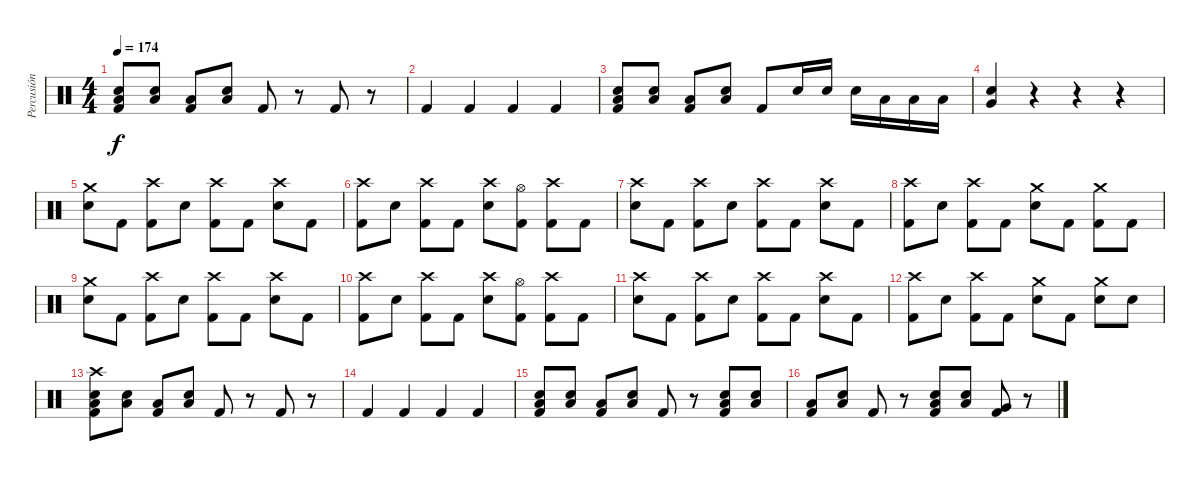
\track ("Percusión" "Percusión") {instrument percussion}
\staff {score}
\articulation defaults
\ts (4 4)
\tempo 174
\clef neutral
\ks c
("Low Tom (hit)" "Electric Snare (hit)" "Kick (hit) 2").8{dy f} ("Low Tom (hit)" "Electric Snare (hit)").8 ("Low Floor Tom (hit)" "Kick (hit) 2").8 ("Low Floor Tom (hit)" "Electric Snare (hit)").8 "Kick (hit) 2".8 r.8 "Kick (hit) 2".8 r.8 |
"Kick (hit) 2".4 "Kick (hit) 2".4 "Kick (hit) 2".4 "Kick (hit) 2".4 |
("Low Tom (hit)" "Electric Snare (hit)" "Kick (hit) 2").8 ("Low Tom (hit)" "Electric Snare (hit)").8 ("Low Floor Tom (hit)" "Kick (hit) 2").8 ("Low Floor Tom (hit)" "Electric Snare (hit)").8 "Kick (hit) 2".8 "Electric Snare (hit)".16 "Electric Snare (hit)".16 "Electric Snare (hit)".16 "Low Tom (hit)".16 "Low Tom (hit)".16 "Low Tom (hit)".16 |
("Very Low Tom (hit)" "Electric Snare (hit)").4 r.4 r.4 r.4 |
("Crash medium (hit)" "Electric Snare (hit)").8 "Kick (hit) 2".8 ("Crash high (hit)" "Kick (hit) 2").8 "Electric Snare (hit)".8 ("Crash high (hit)" "Kick (hit) 2").8 "Kick (hit) 2".8 ("Crash high (hit)" "Electric Snare (hit)").8 "Kick (hit) 2".8 |
("Crash high (hit)" "Kick (hit) 2").8 "Electric Snare (hit)".8 ("Crash high (hit)" "Kick (hit) 2").8 "Kick (hit) 2".8 ("Crash high (hit)" "Electric Snare (hit)").8 ("Hi-Hat (open)" "Kick (hit) 2").8 ("Crash high (hit)" "Kick (hit) 2").8 "Kick (hit) 2".8 |
("Crash high (hit)" "Electric Snare (hit)").8 "Kick (hit) 2".8 ("Crash high (hit)" "Kick (hit) 2").8 "Electric Snare (hit)".8 ("Crash high (hit)" "Kick (hit) 2").8 "Kick (hit) 2".8 ("Crash high (hit)" "Electric Snare (hit)").8 "Kick (hit) 2".8 |
("Crash high (hit)" "Kick (hit) 2").8 "Electric Snare (hit)".8 ("Crash high (hit)" "Kick (hit) 2").8 "Kick (hit) 2".8 ("Crash medium (hit)" "Electric Snare (hit)").8 "Kick (hit) 2".8 ("Crash medium (hit)" "Kick (hit) 2").8 "Kick (hit) 2".8 |
("Crash medium (hit)" "Electric Snare (hit)").8 "Kick (hit) 2".8 ("Crash high (hit)" "Kick (hit) 2").8 "Electric Snare (hit)".8 ("Crash high (hit)" "Kick (hit) 2").8 "Kick (hit) 2".8 ("Crash high (hit)" "Electric Snare (hit)").8 "Kick (hit) 2".8 |
("Crash high (hit)" "Kick (hit) 2").8 "Electric Snare (hit)".8 ("Crash high (hit)" "Kick (hit) 2").8 "Kick (hit) 2".8 ("Crash high (hit)" "Electric Snare (hit)").8 ("Hi-Hat (open)" "Kick (hit) 2").8 ("Crash high (hit)" "Kick (hit) 2").8 "Kick (hit) 2".8 |
("Crash high (hit)" "Electric Snare (hit)").8 "Kick (hit) 2".8 ("Crash high (hit)" "Kick (hit) 2").8 "Electric Snare (hit)".8 ("Crash high (hit)" "Kick (hit) 2").8 "Kick (hit) 2".8 ("Crash high (hit)" "Electric Snare (hit)").8 "Kick (hit) 2".8 |
("Crash high (hit)" "Kick (hit) 2").8 "Electric Snare (hit)".8 ("Crash high (hit)" "Kick (hit) 2").8 "Kick (hit) 2".8 ("Crash medium (hit)" "Electric Snare (hit)").8 "Kick (hit) 2".8 ("Crash medium (hit)" "Electric Snare (hit)").8 "Electric Snare (hit)".8 |
("Crash high (hit)" "Low Tom (hit)" "Electric Snare (hit)" "Kick (hit) 2").8 ("Low Tom (hit)" "Electric Snare (hit)").8 ("Low Floor Tom (hit)" "Kick (hit) 2").8 ("Low Floor Tom (hit)" "Electric Snare (hit)").8 "Kick (hit) 2".8 r.8 "Kick (hit) 2".8 r.8 |
"Kick (hit) 2".4 "Kick (hit) 2".4 "Kick (hit) 2".4 "Kick (hit) 2".4 |
("Low Tom (hit)" "Electric Snare (hit)" "Kick (hit) 2").8 ("Low Tom (hit)" "Electric Snare (hit)").8 ("Low Floor Tom (hit)" "Kick (hit) 2").8 ("Low Floor Tom (hit)" "Electric Snare (hit)").8 "Kick (hit) 2".8 r.8 ("Low Tom (hit)" "Electric Snare (hit)" "Kick (hit) 2").8 ("Low Tom (hit)" "Electric Snare (hit)").8 |
("Low Floor Tom (hit)" "Kick (hit) 2").8 ("Low Floor Tom (hit)" "Electric Snare (hit)").8 "Kick (hit) 2".8 r.8 ("Low Tom (hit)" "Electric Snare (hit)" "Kick (hit) 2").8 ("Low Tom (hit)" "Electric Snare (hit)").8 ("Very Low Tom (hit)" "Kick (hit) 2").8 r.8
